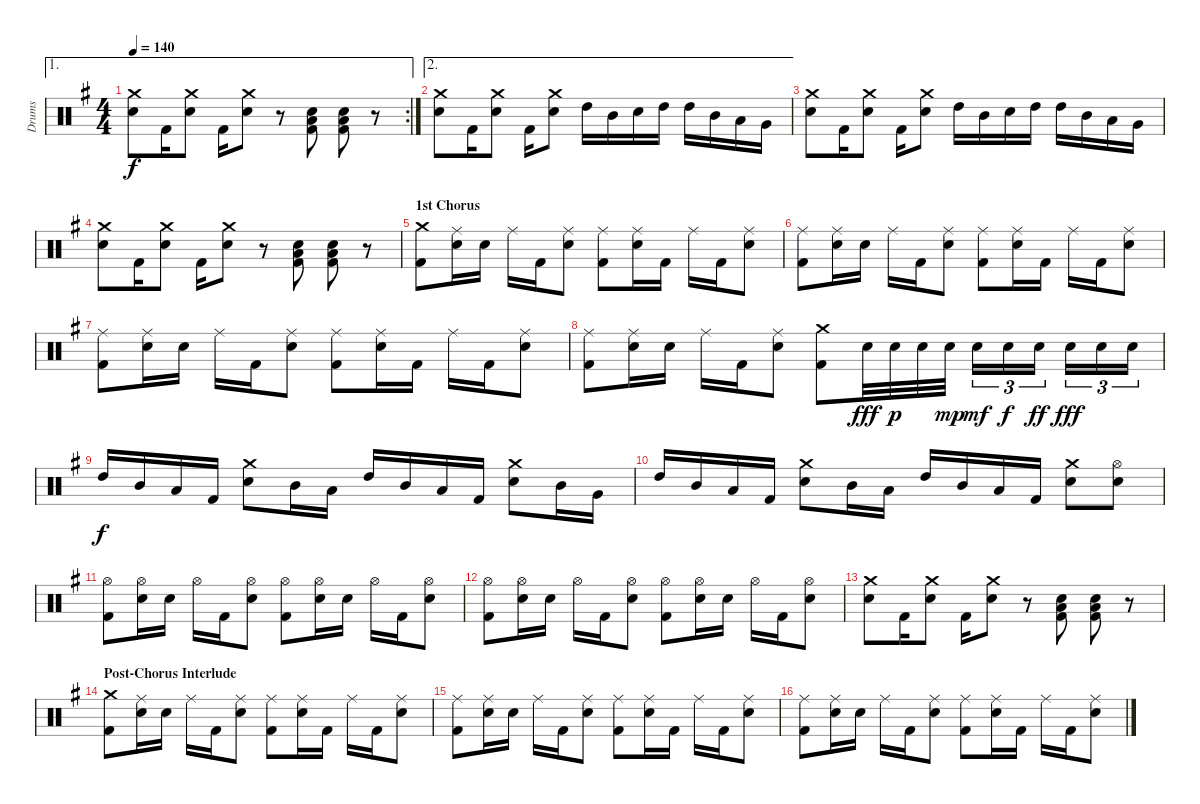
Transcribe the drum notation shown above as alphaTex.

\track ("Drums" "Drums") {instrument percussion}
\staff {score}
\articulation defaults
\ae 1
\rc 2
\ts (4 4)
\tempo 140
\clef neutral
\ks g
("Crash medium (hit)" "Electric Snare (hit)").8{dy f} "Kick (hit) 2".16 ("Crash medium (hit)" "Electric Snare (hit)").8 "Kick (hit) 2".16 ("Crash medium (hit)" "Electric Snare (hit)").8 r.8 ("Low Tom (hit)" "Electric Snare (hit)" "Kick (hit) 2").8 ("Low Tom (hit)" "Electric Snare (hit)" "Kick (hit) 2").8 r.8 |
\ae 2
("Crash medium (hit)" "Electric Snare (hit)").8 "Kick (hit) 2".16 ("Crash medium (hit)" "Electric Snare (hit)").8 "Kick (hit) 2".16 ("Crash medium (hit)" "Electric Snare (hit)").8 "High Tom (hit)".16 "Mid Tom (hit)".16 "Electric Snare (hit)".16 "High Tom (hit)".16 "High Tom (hit)".16 "Mid Tom (hit)".16 "Low Tom (hit)".16 "Very Low Tom (hit)".16 |
("Crash medium (hit)" "Electric Snare (hit)").8 "Kick (hit) 2".16 ("Crash medium (hit)" "Electric Snare (hit)").8 "Kick (hit) 2".16 ("Crash medium (hit)" "Electric Snare (hit)").8 "High Tom (hit)".16 "Mid Tom (hit)".16 "Electric Snare (hit)".16 "High Tom (hit)".16 "High Tom (hit)".16 "Mid Tom (hit)".16 "Low Tom (hit)".16 "Very Low Tom (hit)".16 |
("Crash medium (hit)" "Electric Snare (hit)").8 "Kick (hit) 2".16 ("Crash medium (hit)" "Electric Snare (hit)").8 "Kick (hit) 2".16 ("Crash medium (hit)" "Electric Snare (hit)").8 r.8 ("Low Tom (hit)" "Electric Snare (hit)" "Kick (hit) 2").8 ("Low Tom (hit)" "Electric Snare (hit)" "Kick (hit) 2").8 r.8 |
\section ("" "1st Chorus")
("Crash medium (hit)" "Kick (hit) 2").8 ("Ride (middle)" "Electric Snare (hit)").16 "Electric Snare (hit)".16 "Ride (middle)".16 "Kick (hit) 2".16 ("Ride (middle)" "Electric Snare (hit)").8 ("Ride (middle)" "Kick (hit) 2").8 ("Ride (middle)" "Electric Snare (hit)").16 "Kick (hit) 2".16 "Ride (middle)".16 "Kick (hit) 2".16 ("Ride (middle)" "Electric Snare (hit)").8 |
("Ride (middle)" "Kick (hit) 2").8 ("Ride (middle)" "Electric Snare (hit)").16 "Electric Snare (hit)".16 "Ride (middle)".16 "Kick (hit) 2".16 ("Ride (middle)" "Electric Snare (hit)").8 ("Ride (middle)" "Kick (hit) 2").8 ("Ride (middle)" "Electric Snare (hit)").16 "Kick (hit) 2".16 "Ride (middle)".16 "Kick (hit) 2".16 ("Ride (middle)" "Electric Snare (hit)").8 |
("Ride (middle)" "Kick (hit) 2").8 ("Ride (middle)" "Electric Snare (hit)").16 "Electric Snare (hit)".16 "Ride (middle)".16 "Kick (hit) 2".16 ("Ride (middle)" "Electric Snare (hit)").8 ("Ride (middle)" "Kick (hit) 2").8 ("Ride (middle)" "Electric Snare (hit)").16 "Kick (hit) 2".16 "Ride (middle)".16 "Kick (hit) 2".16 ("Ride (middle)" "Electric Snare (hit)").8 |
("Ride (middle)" "Kick (hit) 2").8 ("Ride (middle)" "Electric Snare (hit)").16 "Electric Snare (hit)".16 "Ride (middle)".16 "Kick (hit) 2".16 ("Ride (middle)" "Electric Snare (hit)").8 ("Crash medium (hit)" "Kick (hit) 2").8 "Electric Snare (hit)".32{dy fff} "Electric Snare (hit)".32{dy p} "Electric Snare (hit)".32 "Electric Snare (hit)".32{dy mp} "Electric Snare (hit)".16{tu (3 2) dy mf} "Electric Snare (hit)".16{tu (3 2) dy f} "Electric Snare (hit)".16{tu (3 2) dy ff} "Electric Snare (hit)".16{tu (3 2) dy fff} "Electric Snare (hit)".16{tu (3 2)} "Electric Snare (hit)".16{tu (3 2)} |
"High Tom (hit)".16{dy f} "Mid Tom (hit)".16 "Low Tom (hit)".16 "Kick (hit) 2".16 ("Crash medium (hit)" "Electric Snare (hit)").8 "Mid Tom (hit)".16 "Low Tom (hit)".16 "High Tom (hit)".16 "Mid Tom (hit)".16 "Low Tom (hit)".16 "Kick (hit) 2".16 ("Crash medium (hit)" "Electric Snare (hit)").8 "Mid Tom (hit)".16 "Very Low Tom (hit)".16 |
"High Tom (hit)".16 "Mid Tom (hit)".16 "Low Tom (hit)".16 "Kick (hit) 2".16 ("Crash medium (hit)" "Electric Snare (hit)").8 "Mid Tom (hit)".16 "Low Tom (hit)".16 "High Tom (hit)".16 "Mid Tom (hit)".16 "Low Tom (hit)".16 "Kick (hit) 2".16 ("Crash medium (hit)" "Electric Snare (hit)").8 ("Hi-Hat (open)" "Electric Snare (hit)").8 |
("Hi-Hat (open)" "Kick (hit) 2").8 ("Hi-Hat (open)" "Electric Snare (hit)").16 "Electric Snare (hit)".16 "Hi-Hat (open)".16 "Kick (hit) 2".16 ("Hi-Hat (open)" "Electric Snare (hit)").8 ("Hi-Hat (open)" "Kick (hit) 2").8 ("Hi-Hat (open)" "Electric Snare (hit)").16 "Electric Snare (hit)".16 "Hi-Hat (open)".16 "Kick (hit) 2".16 ("Hi-Hat (open)" "Electric Snare (hit)").8 |
("Hi-Hat (open)" "Kick (hit) 2").8 ("Hi-Hat (open)" "Electric Snare (hit)").16 "Electric Snare (hit)".16 "Hi-Hat (open)".16 "Kick (hit) 2".16 ("Hi-Hat (open)" "Electric Snare (hit)").8 ("Hi-Hat (open)" "Kick (hit) 2").8 ("Hi-Hat (open)" "Electric Snare (hit)").16 "Electric Snare (hit)".16 "Hi-Hat (open)".16 "Kick (hit) 2".16 ("Hi-Hat (open)" "Electric Snare (hit)").8 |
("Crash medium (hit)" "Electric Snare (hit)").8 "Kick (hit) 2".16 ("Crash medium (hit)" "Electric Snare (hit)").8 "Kick (hit) 2".16 ("Crash medium (hit)" "Electric Snare (hit)").8 r.8 ("Low Tom (hit)" "Electric Snare (hit)" "Kick (hit) 2").8 ("Low Tom (hit)" "Electric Snare (hit)" "Kick (hit) 2").8 r.8 |
\section ("" "Post-Chorus Interlude")
("Crash medium (hit)" "Kick (hit) 2").8 ("Ride (middle)" "Electric Snare (hit)").16 "Electric Snare (hit)".16 "Ride (middle)".16 "Kick (hit) 2".16 ("Ride (middle)" "Electric Snare (hit)").8 ("Ride (middle)" "Kick (hit) 2").8 ("Ride (middle)" "Electric Snare (hit)").16 "Kick (hit) 2".16 "Ride (middle)".16 "Kick (hit) 2".16 ("Ride (middle)" "Electric Snare (hit)").8 |
("Ride (middle)" "Kick (hit) 2").8 ("Ride (middle)" "Electric Snare (hit)").16 "Electric Snare (hit)".16 "Ride (middle)".16 "Kick (hit) 2".16 ("Ride (middle)" "Electric Snare (hit)").8 ("Ride (middle)" "Kick (hit) 2").8 ("Ride (middle)" "Electric Snare (hit)").16 "Kick (hit) 2".16 "Ride (middle)".16 "Kick (hit) 2".16 ("Ride (middle)" "Electric Snare (hit)").8 |
("Ride (middle)" "Kick (hit) 2").8 ("Ride (middle)" "Electric Snare (hit)").16 "Electric Snare (hit)".16 "Ride (middle)".16 "Kick (hit) 2".16 ("Ride (middle)" "Electric Snare (hit)").8 ("Ride (middle)" "Kick (hit) 2").8 ("Ride (middle)" "Electric Snare (hit)").16 "Kick (hit) 2".16 "Ride (middle)".16 "Kick (hit) 2".16 ("Ride (middle)" "Electric Snare (hit)").8
